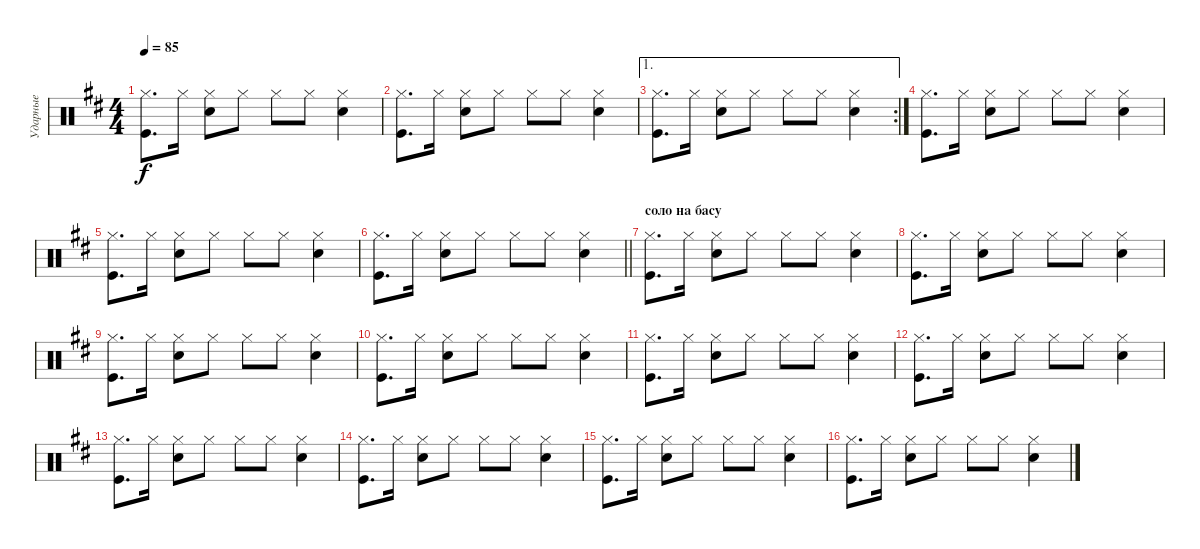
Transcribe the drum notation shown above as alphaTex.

\track ("Ударные" "Ударные") {instrument percussion}
\staff {score}
\articulation defaults
\ts (4 4)
\tempo 85
\clef neutral
\ks d
("Hi-Hat (closed)" "Kick (hit)").8{d dy f} "Hi-Hat (closed)".16 ("Hi-Hat (closed)" "Snare (hit) 2").8 "Hi-Hat (closed)".8 "Hi-Hat (closed)".8 "Hi-Hat (closed)".8 ("Hi-Hat (closed)" "Snare (hit) 2").4 |
("Hi-Hat (closed)" "Kick (hit)").8{d} "Hi-Hat (closed)".16 ("Hi-Hat (closed)" "Snare (hit) 2").8 "Hi-Hat (closed)".8 "Hi-Hat (closed)".8 "Hi-Hat (closed)".8 ("Hi-Hat (closed)" "Snare (hit) 2").4 |
\ae 1
\rc 2
("Hi-Hat (closed)" "Kick (hit)").8{d} "Hi-Hat (closed)".16 ("Hi-Hat (closed)" "Snare (hit) 2").8 "Hi-Hat (closed)".8 "Hi-Hat (closed)".8 "Hi-Hat (closed)".8 ("Hi-Hat (closed)" "Snare (hit) 2").4 |
("Hi-Hat (closed)" "Kick (hit)").8{d} "Hi-Hat (closed)".16 ("Hi-Hat (closed)" "Snare (hit) 2").8 "Hi-Hat (closed)".8 "Hi-Hat (closed)".8 "Hi-Hat (closed)".8 ("Hi-Hat (closed)" "Snare (hit) 2").4 |
("Hi-Hat (closed)" "Kick (hit)").8{d} "Hi-Hat (closed)".16 ("Hi-Hat (closed)" "Snare (hit) 2").8 "Hi-Hat (closed)".8 "Hi-Hat (closed)".8 "Hi-Hat (closed)".8 ("Hi-Hat (closed)" "Snare (hit) 2").4 |
\barLineRight lightlight
("Hi-Hat (closed)" "Kick (hit)").8{d} "Hi-Hat (closed)".16 ("Hi-Hat (closed)" "Snare (hit) 2").8 "Hi-Hat (closed)".8 "Hi-Hat (closed)".8 "Hi-Hat (closed)".8 ("Hi-Hat (closed)" "Snare (hit) 2").4 |
\section ("" "соло на басу")
("Hi-Hat (closed)" "Kick (hit)").8{d} "Hi-Hat (closed)".16 ("Hi-Hat (closed)" "Snare (hit) 2").8 "Hi-Hat (closed)".8 "Hi-Hat (closed)".8 "Hi-Hat (closed)".8 ("Hi-Hat (closed)" "Snare (hit) 2").4 |
("Hi-Hat (closed)" "Kick (hit)").8{d} "Hi-Hat (closed)".16 ("Hi-Hat (closed)" "Snare (hit) 2").8 "Hi-Hat (closed)".8 "Hi-Hat (closed)".8 "Hi-Hat (closed)".8 ("Hi-Hat (closed)" "Snare (hit) 2").4 |
("Hi-Hat (closed)" "Kick (hit)").8{d} "Hi-Hat (closed)".16 ("Hi-Hat (closed)" "Snare (hit) 2").8 "Hi-Hat (closed)".8 "Hi-Hat (closed)".8 "Hi-Hat (closed)".8 ("Hi-Hat (closed)" "Snare (hit) 2").4 |
("Hi-Hat (closed)" "Kick (hit)").8{d} "Hi-Hat (closed)".16 ("Hi-Hat (closed)" "Snare (hit) 2").8 "Hi-Hat (closed)".8 "Hi-Hat (closed)".8 "Hi-Hat (closed)".8 ("Hi-Hat (closed)" "Snare (hit) 2").4 |
("Hi-Hat (closed)" "Kick (hit)").8{d} "Hi-Hat (closed)".16 ("Hi-Hat (closed)" "Snare (hit) 2").8 "Hi-Hat (closed)".8 "Hi-Hat (closed)".8 "Hi-Hat (closed)".8 ("Hi-Hat (closed)" "Snare (hit) 2").4 |
("Hi-Hat (closed)" "Kick (hit)").8{d} "Hi-Hat (closed)".16 ("Hi-Hat (closed)" "Snare (hit) 2").8 "Hi-Hat (closed)".8 "Hi-Hat (closed)".8 "Hi-Hat (closed)".8 ("Hi-Hat (closed)" "Snare (hit) 2").4 |
("Hi-Hat (closed)" "Kick (hit)").8{d} "Hi-Hat (closed)".16 ("Hi-Hat (closed)" "Snare (hit) 2").8 "Hi-Hat (closed)".8 "Hi-Hat (closed)".8 "Hi-Hat (closed)".8 ("Hi-Hat (closed)" "Snare (hit) 2").4 |
("Hi-Hat (closed)" "Kick (hit)").8{d} "Hi-Hat (closed)".16 ("Hi-Hat (closed)" "Snare (hit) 2").8 "Hi-Hat (closed)".8 "Hi-Hat (closed)".8 "Hi-Hat (closed)".8 ("Hi-Hat (closed)" "Snare (hit) 2").4 |
("Hi-Hat (closed)" "Kick (hit)").8{d} "Hi-Hat (closed)".16 ("Hi-Hat (closed)" "Snare (hit) 2").8 "Hi-Hat (closed)".8 "Hi-Hat (closed)".8 "Hi-Hat (closed)".8 ("Hi-Hat (closed)" "Snare (hit) 2").4 |
("Hi-Hat (closed)" "Kick (hit)").8{d} "Hi-Hat (closed)".16 ("Hi-Hat (closed)" "Snare (hit) 2").8 "Hi-Hat (closed)".8 "Hi-Hat (closed)".8 "Hi-Hat (closed)".8 ("Hi-Hat (closed)" "Snare (hit) 2").4
